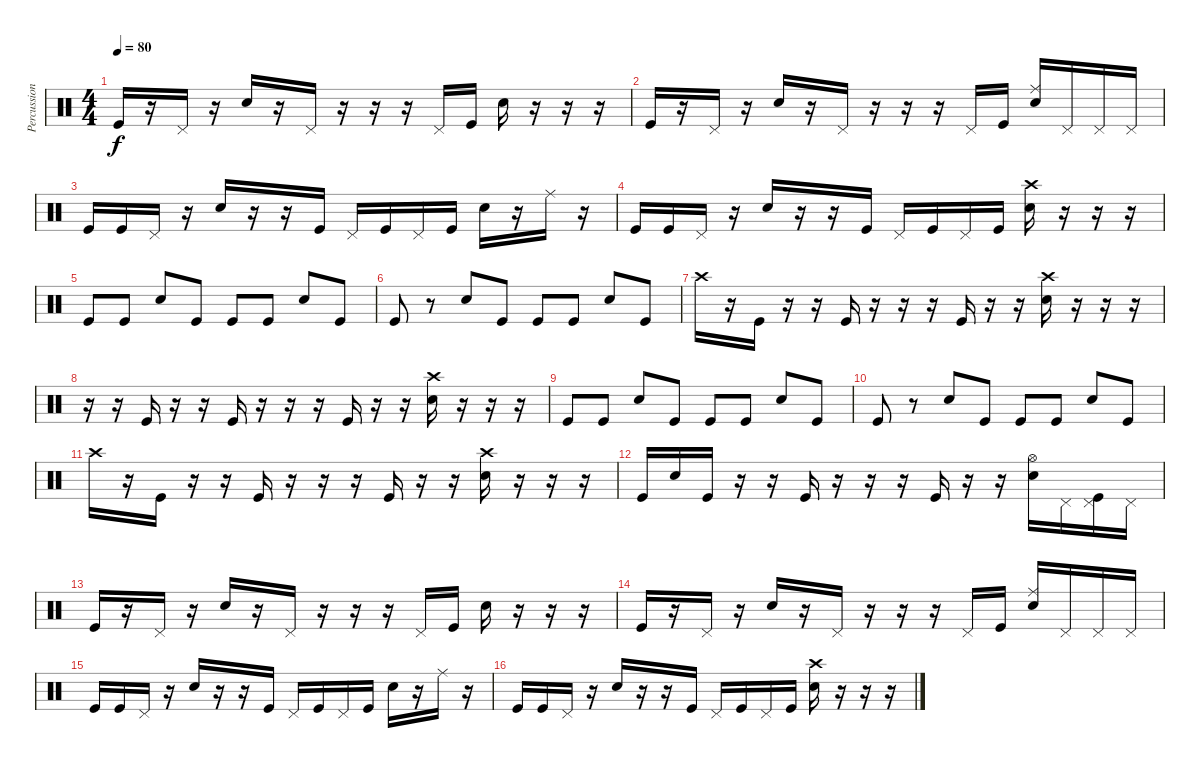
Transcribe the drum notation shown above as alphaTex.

\track ("Percussions" "Percussion") {instrument percussion}
\staff {score}
\articulation defaults
\ts (4 4)
\tempo 80
\clef neutral
\ks c "Kick (hit)".16{dy f}
r.16 "Pedal Hi-Hat (hit)".16 r.16 "Electric Snare (hit)".16 r.16 "Pedal Hi-Hat (hit)".16 r.16 r.16 r.16 "Pedal Hi-Hat (hit)".16 "Kick (hit)".16 "Electric Snare (hit)".16 r.16 r.16 r.16 |
"Kick (hit)".16 r.16 "Pedal Hi-Hat (hit)".16 r.16 "Electric Snare (hit)".16 r.16 "Pedal Hi-Hat (hit)".16 r.16 r.16 r.16 "Pedal Hi-Hat (hit)".16 "Kick (hit)".16 ("Ride (middle)" "Electric Snare (hit)").16 "Pedal Hi-Hat (hit)".16 "Pedal Hi-Hat (hit)".16 "Pedal Hi-Hat (hit)".16 |
"Kick (hit)".16 "Kick (hit)".16 "Pedal Hi-Hat (hit)".16 r.16 "Electric Snare (hit)".16 r.16 r.16 "Kick (hit)".16 "Pedal Hi-Hat (hit)".16 "Kick (hit)".16 "Pedal Hi-Hat (hit)".16 "Kick (hit)".16 "Electric Snare (hit)".16 r.16 "Ride (middle)".16 r.16 |
"Kick (hit)".16 "Kick (hit)".16 "Pedal Hi-Hat (hit)".16 r.16 "Electric Snare (hit)".16 r.16 r.16 "Kick (hit)".16 "Pedal Hi-Hat (hit)".16 "Kick (hit)".16 "Pedal Hi-Hat (hit)".16 "Kick (hit)".16 ("Crash high (hit)" "Electric Snare (hit)").16 r.16 r.16 r.16 |
"Kick (hit)".8 "Kick (hit)".8 "Electric Snare (hit)".8 "Kick (hit)".8 "Kick (hit)".8 "Kick (hit)".8 "Electric Snare (hit)".8 "Kick (hit)".8 |
"Kick (hit)".8 r.8 "Electric Snare (hit)".8 "Kick (hit)".8 "Kick (hit)".8 "Kick (hit)".8 "Electric Snare (hit)".8 "Kick (hit)".8 |
"Crash high (hit)".16 r.16 "Kick (hit)".16 r.16 r.16 "Kick (hit)".16 r.16 r.16 r.16 "Kick (hit)".16 r.16 r.16 ("Crash high (hit)" "Electric Snare (hit)").16 r.16 r.16 r.16 |
r.16 r.16 "Kick (hit)".16 r.16 r.16 "Kick (hit)".16 r.16 r.16 r.16 "Kick (hit)".16 r.16 r.16 ("Crash high (hit)" "Electric Snare (hit)").16 r.16 r.16 r.16 |
"Kick (hit)".8 "Kick (hit)".8 "Electric Snare (hit)".8 "Kick (hit)".8 "Kick (hit)".8 "Kick (hit)".8 "Electric Snare (hit)".8 "Kick (hit)".8 |
"Kick (hit)".8 r.8 "Electric Snare (hit)".8 "Kick (hit)".8 "Kick (hit)".8 "Kick (hit)".8 "Electric Snare (hit)".8 "Kick (hit)".8 |
"Crash high (hit)".16 r.16 "Kick (hit)".16 r.16 r.16 "Kick (hit)".16 r.16 r.16 r.16 "Kick (hit)".16 r.16 r.16 ("Crash high (hit)" "Electric Snare (hit)").16 r.16 r.16 r.16 |
"Kick (hit)".16 "Electric Snare (hit)".16 "Kick (hit)".16 r.16 r.16 "Kick (hit)".16 r.16 r.16 r.16 "Kick (hit)".16 r.16 r.16 ("Hi-Hat (open)" "Electric Snare (hit)").16 "Pedal Hi-Hat (hit)".16 ("Pedal Hi-Hat (hit)" "Kick (hit)").16 "Pedal Hi-Hat (hit)".16 |
"Kick (hit)".16 r.16 "Pedal Hi-Hat (hit)".16 r.16 "Electric Snare (hit)".16 r.16 "Pedal Hi-Hat (hit)".16 r.16 r.16 r.16 "Pedal Hi-Hat (hit)".16 "Kick (hit)".16 "Electric Snare (hit)".16 r.16 r.16 r.16 |
"Kick (hit)".16 r.16 "Pedal Hi-Hat (hit)".16 r.16 "Electric Snare (hit)".16 r.16 "Pedal Hi-Hat (hit)".16 r.16 r.16 r.16 "Pedal Hi-Hat (hit)".16 "Kick (hit)".16 ("Ride (middle)" "Electric Snare (hit)").16 "Pedal Hi-Hat (hit)".16 "Pedal Hi-Hat (hit)".16 "Pedal Hi-Hat (hit)".16 |
"Kick (hit)".16 "Kick (hit)".16 "Pedal Hi-Hat (hit)".16 r.16 "Electric Snare (hit)".16 r.16 r.16 "Kick (hit)".16 "Pedal Hi-Hat (hit)".16 "Kick (hit)".16 "Pedal Hi-Hat (hit)".16 "Kick (hit)".16 "Electric Snare (hit)".16 r.16 "Ride (middle)".16 r.16 |
"Kick (hit)".16 "Kick (hit)".16 "Pedal Hi-Hat (hit)".16 r.16 "Electric Snare (hit)".16 r.16 r.16 "Kick (hit)".16 "Pedal Hi-Hat (hit)".16 "Kick (hit)".16 "Pedal Hi-Hat (hit)".16 "Kick (hit)".16 ("Crash high (hit)" "Electric Snare (hit)").16 r.16 r.16 r.16
